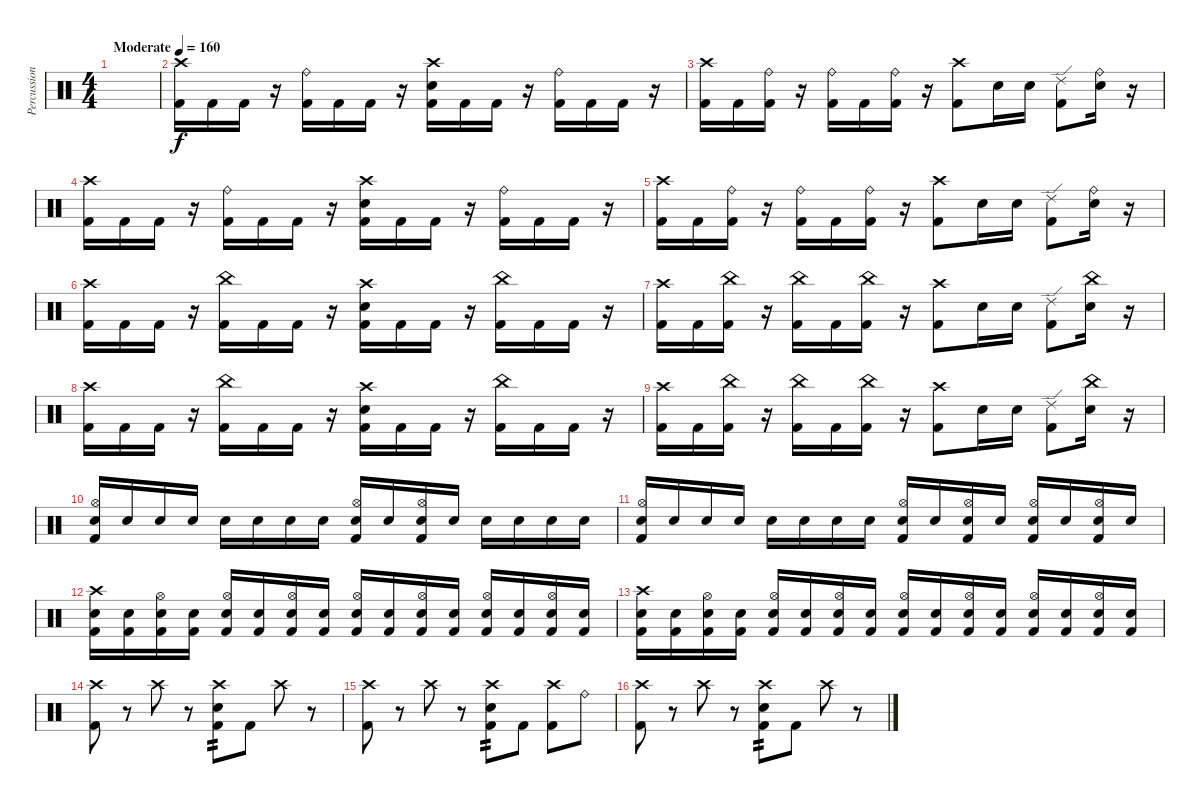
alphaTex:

\track ("Percussion" "Percussion") {instrument percussion}
\staff {score}
\articulation defaults
\ts (4 4)
\tempo (160 "Moderate")
\clef neutral
\ks c
|
("Crash high (hit)" "Kick (hit) 2").16 "Kick (hit) 2".16 "Kick (hit) 2".16 r.16 ("Ride (bell)" "Kick (hit) 2").16 "Kick (hit) 2".16 "Kick (hit) 2".16 r.16 ("Crash high (hit)" "Snare (hit) 2" "Kick (hit) 2").16 "Kick (hit) 2".16 "Kick (hit) 2".16 r.16 ("Ride (bell)" "Kick (hit) 2").16 "Kick (hit) 2".16 "Kick (hit) 2".16 r.16 |
("Crash high (hit)" "Kick (hit) 2").16 "Kick (hit) 2".16 ("Ride (bell)" "Kick (hit) 2").16 r.16 ("Ride (bell)" "Kick (hit) 2").16 "Kick (hit) 2".16 ("Ride (bell)" "Kick (hit) 2").16 r.16 ("Crash high (hit)" "Kick (hit) 2").8 "Snare (hit) 2".16 "Snare (hit) 2".16 ("Ride (edge) 2" "Kick (hit) 2").8 ("Ride (bell)" "Snare (hit) 2").16 r.16 |
("Crash high (hit)" "Kick (hit) 2").16 "Kick (hit) 2".16 "Kick (hit) 2".16 r.16 ("Ride (bell)" "Kick (hit) 2").16 "Kick (hit) 2".16 "Kick (hit) 2".16 r.16 ("Crash high (hit)" "Snare (hit) 2" "Kick (hit) 2").16 "Kick (hit) 2".16 "Kick (hit) 2".16 r.16 ("Ride (bell)" "Kick (hit) 2").16 "Kick (hit) 2".16 "Kick (hit) 2".16 r.16 |
("Crash high (hit)" "Kick (hit) 2").16 "Kick (hit) 2".16 ("Ride (bell)" "Kick (hit) 2").16 r.16 ("Ride (bell)" "Kick (hit) 2").16 "Kick (hit) 2".16 ("Ride (bell)" "Kick (hit) 2").16 r.16 ("Crash high (hit)" "Kick (hit) 2").8 "Snare (hit) 2".16 "Snare (hit) 2".16 ("Ride (edge) 2" "Kick (hit) 2").8 ("Ride (bell)" "Snare (hit) 2").16 r.16 |
("Crash high (hit)" "Kick (hit) 2").16 "Kick (hit) 2".16 "Kick (hit) 2".16 r.16 ("China (hit)" "Kick (hit) 2").16 "Kick (hit) 2".16 "Kick (hit) 2".16 r.16 ("Crash high (hit)" "Snare (hit) 2" "Kick (hit) 2").16 "Kick (hit) 2".16 "Kick (hit) 2".16 r.16 ("China (hit)" "Kick (hit) 2").16 "Kick (hit) 2".16 "Kick (hit) 2".16 r.16 |
("Crash high (hit)" "Kick (hit) 2").16 "Kick (hit) 2".16 ("China (hit)" "Kick (hit) 2").16 r.16 ("China (hit)" "Kick (hit) 2").16 "Kick (hit) 2".16 ("China (hit)" "Kick (hit) 2").16 r.16 ("Crash high (hit)" "Kick (hit) 2").8 "Snare (hit) 2".16 "Snare (hit) 2".16 ("Ride (edge) 2" "Kick (hit) 2").8 ("China (hit)" "Snare (hit) 2").16 r.16 |
("Crash high (hit)" "Kick (hit) 2").16 "Kick (hit) 2".16 "Kick (hit) 2".16 r.16 ("China (hit)" "Kick (hit) 2").16 "Kick (hit) 2".16 "Kick (hit) 2".16 r.16 ("Crash high (hit)" "Snare (hit) 2" "Kick (hit) 2").16 "Kick (hit) 2".16 "Kick (hit) 2".16 r.16 ("China (hit)" "Kick (hit) 2").16 "Kick (hit) 2".16 "Kick (hit) 2".16 r.16 |
("Crash high (hit)" "Kick (hit) 2").16 "Kick (hit) 2".16 ("China (hit)" "Kick (hit) 2").16 r.16 ("China (hit)" "Kick (hit) 2").16 "Kick (hit) 2".16 ("China (hit)" "Kick (hit) 2").16 r.16 ("Crash high (hit)" "Kick (hit) 2").8 "Snare (hit) 2".16 "Snare (hit) 2".16 ("Ride (edge) 2" "Kick (hit) 2").8 ("China (hit)" "Snare (hit) 2").16 r.16 |
("Hi-Hat (open)" "Electric Snare (hit)" "Kick (hit) 2").16 "Electric Snare (hit)".16 "Electric Snare (hit)".16 "Electric Snare (hit)".16 "Electric Snare (hit)".16 "Electric Snare (hit)".16 "Electric Snare (hit)".16 "Electric Snare (hit)".16 ("Hi-Hat (open)" "Electric Snare (hit)" "Kick (hit) 2").16 "Electric Snare (hit)".16 ("Hi-Hat (open)" "Electric Snare (hit)" "Kick (hit) 2").16 "Electric Snare (hit)".16 "Electric Snare (hit)".16 "Electric Snare (hit)".16 "Electric Snare (hit)".16 "Electric Snare (hit)".16 |
("Hi-Hat (open)" "Electric Snare (hit)" "Kick (hit) 2").16 "Electric Snare (hit)".16 "Electric Snare (hit)".16 "Electric Snare (hit)".16 "Electric Snare (hit)".16 "Electric Snare (hit)".16 "Electric Snare (hit)".16 "Electric Snare (hit)".16 ("Hi-Hat (open)" "Electric Snare (hit)" "Kick (hit) 2").16 "Electric Snare (hit)".16 ("Hi-Hat (open)" "Electric Snare (hit)" "Kick (hit) 2").16 "Electric Snare (hit)".16 ("Hi-Hat (open)" "Electric Snare (hit)" "Kick (hit) 2").16 "Electric Snare (hit)".16 ("Hi-Hat (open)" "Electric Snare (hit)" "Kick (hit) 2").16 "Electric Snare (hit)".16 |
("Crash high (hit)" "Electric Snare (hit)" "Kick (hit) 2").16 ("Electric Snare (hit)" "Kick (hit) 2").16 ("Hi-Hat (open)" "Electric Snare (hit)" "Kick (hit) 2").16 ("Electric Snare (hit)" "Kick (hit) 2").16 ("Hi-Hat (open)" "Electric Snare (hit)" "Kick (hit) 2").16 ("Electric Snare (hit)" "Kick (hit) 2").16 ("Hi-Hat (open)" "Electric Snare (hit)" "Kick (hit) 2").16 ("Electric Snare (hit)" "Kick (hit) 2").16 ("Hi-Hat (open)" "Electric Snare (hit)" "Kick (hit) 2").16 ("Electric Snare (hit)" "Kick (hit) 2").16 ("Hi-Hat (open)" "Electric Snare (hit)" "Kick (hit) 2").16 ("Electric Snare (hit)" "Kick (hit) 2").16 ("Hi-Hat (open)" "Electric Snare (hit)" "Kick (hit) 2").16 ("Electric Snare (hit)" "Kick (hit) 2").16 ("Hi-Hat (open)" "Electric Snare (hit)" "Kick (hit) 2").16 ("Electric Snare (hit)" "Kick (hit) 2").16 |
("Crash high (hit)" "Electric Snare (hit)" "Kick (hit) 2").16 ("Electric Snare (hit)" "Kick (hit) 2").16 ("Hi-Hat (open)" "Electric Snare (hit)" "Kick (hit) 2").16 ("Electric Snare (hit)" "Kick (hit) 2").16 ("Hi-Hat (open)" "Electric Snare (hit)" "Kick (hit) 2").16 ("Electric Snare (hit)" "Kick (hit) 2").16 ("Hi-Hat (open)" "Electric Snare (hit)" "Kick (hit) 2").16 ("Electric Snare (hit)" "Kick (hit) 2").16 ("Hi-Hat (open)" "Electric Snare (hit)" "Kick (hit) 2").16 ("Electric Snare (hit)" "Kick (hit) 2").16 ("Hi-Hat (open)" "Electric Snare (hit)" "Kick (hit) 2").16 ("Electric Snare (hit)" "Kick (hit) 2").16 ("Hi-Hat (open)" "Electric Snare (hit)" "Kick (hit) 2").16 ("Electric Snare (hit)" "Kick (hit) 2").16 ("Hi-Hat (open)" "Electric Snare (hit)" "Kick (hit) 2").16 ("Electric Snare (hit)" "Kick (hit) 2").16 |
("Crash high (hit)" "Kick (hit) 2").8 r.8 "Crash high (hit)".8 r.8 ("Crash high (hit)" "Snare (hit) 2" "Kick (hit) 2").8{tp 2} "Kick (hit) 2".8 "Crash high (hit)".8 r.8 |
("Crash high (hit)" "Kick (hit) 2").8 r.8 "Crash high (hit)".8 r.8 ("Crash high (hit)" "Snare (hit) 2" "Kick (hit) 2").8{tp 2} "Kick (hit) 2".8 ("Crash high (hit)" "Kick (hit) 2").8 "Ride (bell)".8 |
("Crash high (hit)" "Kick (hit) 2").8 r.8 "Crash high (hit)".8 r.8 ("Crash high (hit)" "Snare (hit) 2" "Kick (hit) 2").8{tp 2} "Kick (hit) 2".8 "Crash high (hit)".8 r.8
